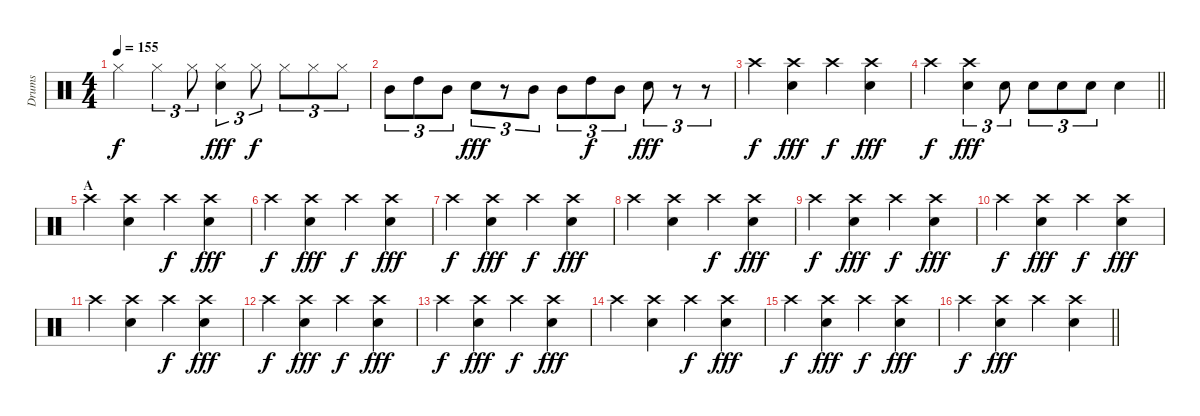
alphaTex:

\track ("Drums" "Drums") {instrument percussion}
\staff {score}
\articulation defaults
\ts (4 4)
\tempo 155
\clef neutral
\ks c "Hi-Hat (closed)".4{dy f} "Hi-Hat (closed)".4{tu (3 2)} "Hi-Hat (closed)".8{tu (3 2)}
("Hi-Hat (closed)" "Electric Snare (hit)").4{tu (3 2) dy fff} "Hi-Hat (closed)".8{tu (3 2) dy f} "Hi-Hat (closed)".8{tu (3 2)} "Hi-Hat (closed)".8{tu (3 2)} "Hi-Hat (closed)".8{tu (3 2)} |
"Mid Tom (hit)".8{tu (3 2)} "High Tom (hit)".8{tu (3 2)} "Mid Tom (hit)".8{tu (3 2)} "Electric Snare (hit)".8{tu (3 2) dy fff} r.8{tu (3 2)} "Mid Tom (hit)".8{tu (3 2)} "Mid Tom (hit)".8{tu (3 2)} "High Tom (hit)".8{tu (3 2) dy f} "Mid Tom (hit)".8{tu (3 2)} "Electric Snare (hit)".8{tu (3 2) dy fff} r.8{tu (3 2)} r.8{tu (3 2)} |
"Crash high (hit)".4{dy f} ("Crash high (hit)" "Electric Snare (hit)").4{dy fff} "Crash high (hit)".4{dy f} ("Crash high (hit)" "Electric Snare (hit)").4{dy fff} |
\barLineRight lightlight "Crash high (hit)".4{dy f}
("Crash high (hit)" "Electric Snare (hit)").4{tu (3 2) dy fff} "Electric Snare (hit)".8{tu (3 2)} "Electric Snare (hit)".8{tu (3 2)} "Electric Snare (hit)".8{tu (3 2)} "Electric Snare (hit)".8{tu (3 2)} "Electric Snare (hit)".4 |
\section ("" "A")
"Crash high (hit)".4 ("Crash high (hit)" "Electric Snare (hit)").4 "Crash high (hit)".4{dy f} ("Crash high (hit)" "Electric Snare (hit)").4{dy fff} |
"Crash high (hit)".4{dy f} ("Crash high (hit)" "Electric Snare (hit)").4{dy fff} "Crash high (hit)".4{dy f} ("Crash high (hit)" "Electric Snare (hit)").4{dy fff} |
"Crash high (hit)".4{dy f} ("Crash high (hit)" "Electric Snare (hit)").4{dy fff} "Crash high (hit)".4{dy f} ("Crash high (hit)" "Electric Snare (hit)").4{dy fff} |
"Crash high (hit)".4 ("Crash high (hit)" "Electric Snare (hit)").4 "Crash high (hit)".4{dy f} ("Crash high (hit)" "Electric Snare (hit)").4{dy fff} |
"Crash high (hit)".4{dy f} ("Crash high (hit)" "Electric Snare (hit)").4{dy fff} "Crash high (hit)".4{dy f} ("Crash high (hit)" "Electric Snare (hit)").4{dy fff} |
"Crash high (hit)".4{dy f} ("Crash high (hit)" "Electric Snare (hit)").4{dy fff} "Crash high (hit)".4{dy f} ("Crash high (hit)" "Electric Snare (hit)").4{dy fff} |
"Crash high (hit)".4 ("Crash high (hit)" "Electric Snare (hit)").4 "Crash high (hit)".4{dy f} ("Crash high (hit)" "Electric Snare (hit)").4{dy fff} |
"Crash high (hit)".4{dy f} ("Crash high (hit)" "Electric Snare (hit)").4{dy fff} "Crash high (hit)".4{dy f} ("Crash high (hit)" "Electric Snare (hit)").4{dy fff} |
"Crash high (hit)".4{dy f} ("Crash high (hit)" "Electric Snare (hit)").4{dy fff} "Crash high (hit)".4{dy f} ("Crash high (hit)" "Electric Snare (hit)").4{dy fff} |
"Crash high (hit)".4 ("Crash high (hit)" "Electric Snare (hit)").4 "Crash high (hit)".4{dy f} ("Crash high (hit)" "Electric Snare (hit)").4{dy fff} |
"Crash high (hit)".4{dy f} ("Crash high (hit)" "Electric Snare (hit)").4{dy fff} "Crash high (hit)".4{dy f} ("Crash high (hit)" "Electric Snare (hit)").4{dy fff} |
\barLineRight lightlight "Crash high (hit)".4{dy f}
("Crash high (hit)" "Electric Snare (hit)").4{dy fff} "Crash high (hit)".4 ("Crash high (hit)" "Electric Snare (hit)").4
